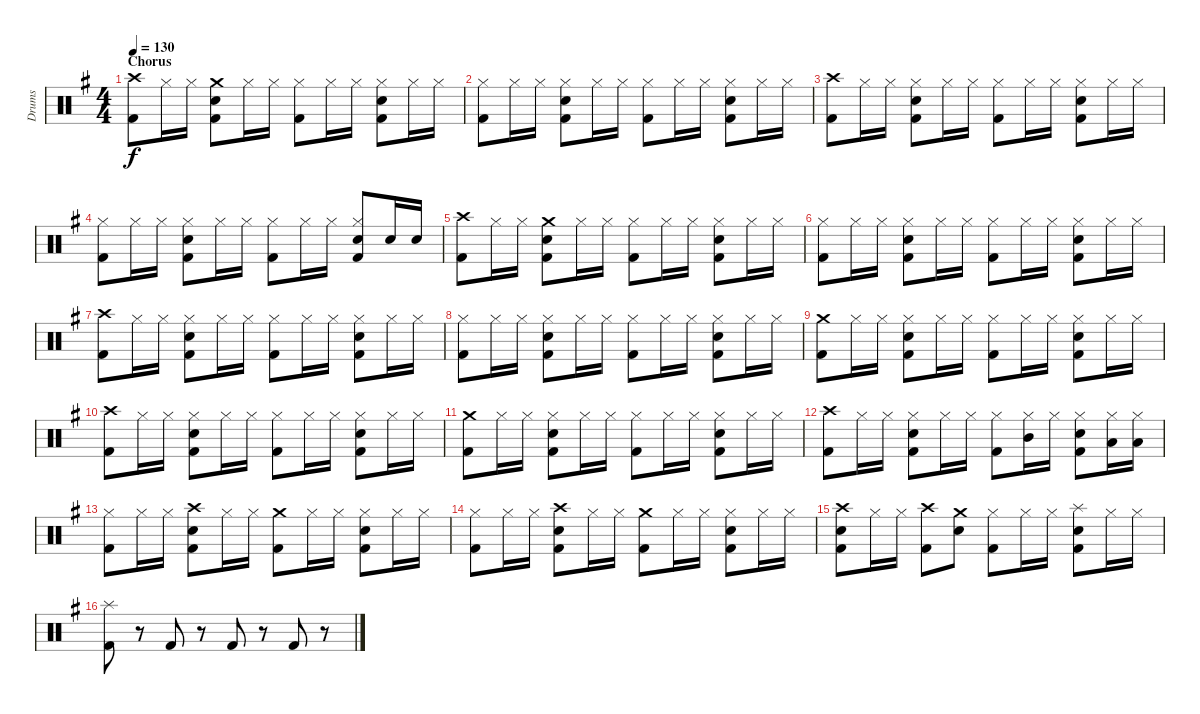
\track ("Drums" "Drums") {instrument percussion}
\staff {score}
\articulation defaults
\ts (4 4)
\section ("" "Chorus")
\tempo 130
\clef neutral
\ks g
("Crash high (hit)" "Kick (hit) 2").8{dy f} "Hi-Hat (closed)".16 "Hi-Hat (closed)".16 ("Crash medium (hit)" "Electric Snare (hit)" "Kick (hit) 2").8 "Hi-Hat (closed)".16 "Hi-Hat (closed)".16 ("Hi-Hat (closed)" "Kick (hit) 2").8 "Hi-Hat (closed)".16 "Hi-Hat (closed)".16 ("Hi-Hat (closed)" "Electric Snare (hit)" "Kick (hit) 2").8 "Hi-Hat (closed)".16 "Hi-Hat (closed)".16 |
("Hi-Hat (closed)" "Kick (hit) 2").8 "Hi-Hat (closed)".16 "Hi-Hat (closed)".16 ("Hi-Hat (closed)" "Electric Snare (hit)" "Kick (hit) 2").8 "Hi-Hat (closed)".16 "Hi-Hat (closed)".16 ("Hi-Hat (closed)" "Kick (hit) 2").8 "Hi-Hat (closed)".16 "Hi-Hat (closed)".16 ("Hi-Hat (closed)" "Electric Snare (hit)" "Kick (hit) 2").8 "Hi-Hat (closed)".16 "Hi-Hat (closed)".16 |
("Crash high (hit)" "Kick (hit) 2").8 "Hi-Hat (closed)".16 "Hi-Hat (closed)".16 ("Hi-Hat (closed)" "Electric Snare (hit)" "Kick (hit) 2").8 "Hi-Hat (closed)".16 "Hi-Hat (closed)".16 ("Hi-Hat (closed)" "Kick (hit) 2").8 "Hi-Hat (closed)".16 "Hi-Hat (closed)".16 ("Hi-Hat (closed)" "Electric Snare (hit)" "Kick (hit) 2").8 "Hi-Hat (closed)".16 "Hi-Hat (closed)".16 |
("Hi-Hat (closed)" "Kick (hit) 2").8 "Hi-Hat (closed)".16 "Hi-Hat (closed)".16 ("Hi-Hat (closed)" "Electric Snare (hit)" "Kick (hit) 2").8 "Hi-Hat (closed)".16 "Hi-Hat (closed)".16 ("Hi-Hat (closed)" "Kick (hit) 2").8 "Hi-Hat (closed)".16 "Hi-Hat (closed)".16 ("Hi-Hat (closed)" "Electric Snare (hit)" "Kick (hit) 2").8 "Electric Snare (hit)".16 "Electric Snare (hit)".16 |
("Crash high (hit)" "Kick (hit) 2").8 "Hi-Hat (closed)".16 "Hi-Hat (closed)".16 ("Crash medium (hit)" "Electric Snare (hit)" "Kick (hit) 2").8 "Hi-Hat (closed)".16 "Hi-Hat (closed)".16 ("Hi-Hat (closed)" "Kick (hit) 2").8 "Hi-Hat (closed)".16 "Hi-Hat (closed)".16 ("Hi-Hat (closed)" "Electric Snare (hit)" "Kick (hit) 2").8 "Hi-Hat (closed)".16 "Hi-Hat (closed)".16 |
("Hi-Hat (closed)" "Kick (hit) 2").8 "Hi-Hat (closed)".16 "Hi-Hat (closed)".16 ("Hi-Hat (closed)" "Electric Snare (hit)" "Kick (hit) 2").8 "Hi-Hat (closed)".16 "Hi-Hat (closed)".16 ("Hi-Hat (closed)" "Kick (hit) 2").8 "Hi-Hat (closed)".16 "Hi-Hat (closed)".16 ("Hi-Hat (closed)" "Electric Snare (hit)" "Kick (hit) 2").8 "Hi-Hat (closed)".16 "Hi-Hat (closed)".16 |
("Crash high (hit)" "Kick (hit) 2").8 "Hi-Hat (closed)".16 "Hi-Hat (closed)".16 ("Hi-Hat (closed)" "Electric Snare (hit)" "Kick (hit) 2").8 "Hi-Hat (closed)".16 "Hi-Hat (closed)".16 ("Hi-Hat (closed)" "Kick (hit) 2").8 "Hi-Hat (closed)".16 "Hi-Hat (closed)".16 ("Hi-Hat (closed)" "Electric Snare (hit)" "Kick (hit) 2").8 "Hi-Hat (closed)".16 "Hi-Hat (closed)".16 |
("Hi-Hat (closed)" "Kick (hit) 2").8 "Hi-Hat (closed)".16 "Hi-Hat (closed)".16 ("Hi-Hat (closed)" "Electric Snare (hit)" "Kick (hit) 2").8 "Hi-Hat (closed)".16 "Hi-Hat (closed)".16 ("Hi-Hat (closed)" "Kick (hit) 2").8 "Hi-Hat (closed)".16 "Hi-Hat (closed)".16 ("Hi-Hat (closed)" "Electric Snare (hit)" "Kick (hit) 2").8 "Hi-Hat (closed)".16 "Hi-Hat (closed)".16 |
("Crash medium (hit)" "Kick (hit) 2").8 "Hi-Hat (closed)".16 "Hi-Hat (closed)".16 ("Hi-Hat (closed)" "Electric Snare (hit)" "Kick (hit) 2").8 "Hi-Hat (closed)".16 "Hi-Hat (closed)".16 ("Hi-Hat (closed)" "Kick (hit) 2").8 "Hi-Hat (closed)".16 "Hi-Hat (closed)".16 ("Hi-Hat (closed)" "Electric Snare (hit)" "Kick (hit) 2").8 "Hi-Hat (closed)".16 "Hi-Hat (closed)".16 |
("Crash high (hit)" "Kick (hit) 2").8 "Hi-Hat (closed)".16 "Hi-Hat (closed)".16 ("Hi-Hat (closed)" "Electric Snare (hit)" "Kick (hit) 2").8 "Hi-Hat (closed)".16 "Hi-Hat (closed)".16 ("Hi-Hat (closed)" "Kick (hit) 2").8 "Hi-Hat (closed)".16 "Hi-Hat (closed)".16 ("Hi-Hat (closed)" "Electric Snare (hit)" "Kick (hit) 2").8 "Hi-Hat (closed)".16 "Hi-Hat (closed)".16 |
("Crash medium (hit)" "Kick (hit) 2").8 "Hi-Hat (closed)".16 "Hi-Hat (closed)".16 ("Hi-Hat (closed)" "Electric Snare (hit)" "Kick (hit) 2").8 "Hi-Hat (closed)".16 "Hi-Hat (closed)".16 ("Hi-Hat (closed)" "Kick (hit) 2").8 "Hi-Hat (closed)".16 "Hi-Hat (closed)".16 ("Hi-Hat (closed)" "Electric Snare (hit)" "Kick (hit) 2").8 "Hi-Hat (closed)".16 "Hi-Hat (closed)".16 |
("Crash high (hit)" "Kick (hit) 2").8 "Hi-Hat (closed)".16 "Hi-Hat (closed)".16 ("Hi-Hat (closed)" "Electric Snare (hit)" "Kick (hit) 2").8 "Hi-Hat (closed)".16 "Hi-Hat (closed)".16 ("Hi-Hat (closed)" "Kick (hit) 2").8 ("Hi-Hat (closed)" "Mid Tom (hit)").16 "Hi-Hat (closed)".16 ("Hi-Hat (closed)" "Electric Snare (hit)" "Kick (hit) 2").8 ("Hi-Hat (closed)" "Low Tom (hit)").16 ("Hi-Hat (closed)" "Low Tom (hit)").16 |
("Hi-Hat (closed)" "Kick (hit) 2").8 "Hi-Hat (closed)".16 "Hi-Hat (closed)".16 ("Crash high (hit)" "Electric Snare (hit)" "Kick (hit) 2").8 "Hi-Hat (closed)".16 "Hi-Hat (closed)".16 ("Crash medium (hit)" "Kick (hit) 2").8 "Hi-Hat (closed)".16 "Hi-Hat (closed)".16 ("Hi-Hat (closed)" "Electric Snare (hit)" "Kick (hit) 2").8 "Hi-Hat (closed)".16 "Hi-Hat (closed)".16 |
("Hi-Hat (closed)" "Kick (hit) 2").8 "Hi-Hat (closed)".16 "Hi-Hat (closed)".16 ("Crash high (hit)" "Electric Snare (hit)" "Kick (hit) 2").8 "Hi-Hat (closed)".16 "Hi-Hat (closed)".16 ("Crash medium (hit)" "Kick (hit) 2").8 "Hi-Hat (closed)".16 "Hi-Hat (closed)".16 ("Hi-Hat (closed)" "Electric Snare (hit)" "Kick (hit) 2").8 "Hi-Hat (closed)".16 "Hi-Hat (closed)".16 |
("Crash high (hit)" "Electric Snare (hit)" "Kick (hit) 2").8 "Hi-Hat (closed)".16 "Hi-Hat (closed)".16 ("Crash high (hit)" "Kick (hit) 2").8 ("Crash medium (hit)" "Electric Snare (hit)").8 ("Hi-Hat (closed)" "Kick (hit) 2").8 "Hi-Hat (closed)".16 "Hi-Hat (closed)".16 ("Splash (hit)" "Electric Snare (hit)" "Kick (hit) 2").8 "Hi-Hat (closed)".16 "Hi-Hat (closed)".16 |
("Splash (hit)" "Kick (hit) 2").8 r.8 "Kick (hit) 2".8 r.8 "Kick (hit) 2".8 r.8 "Kick (hit) 2".8 r.8
